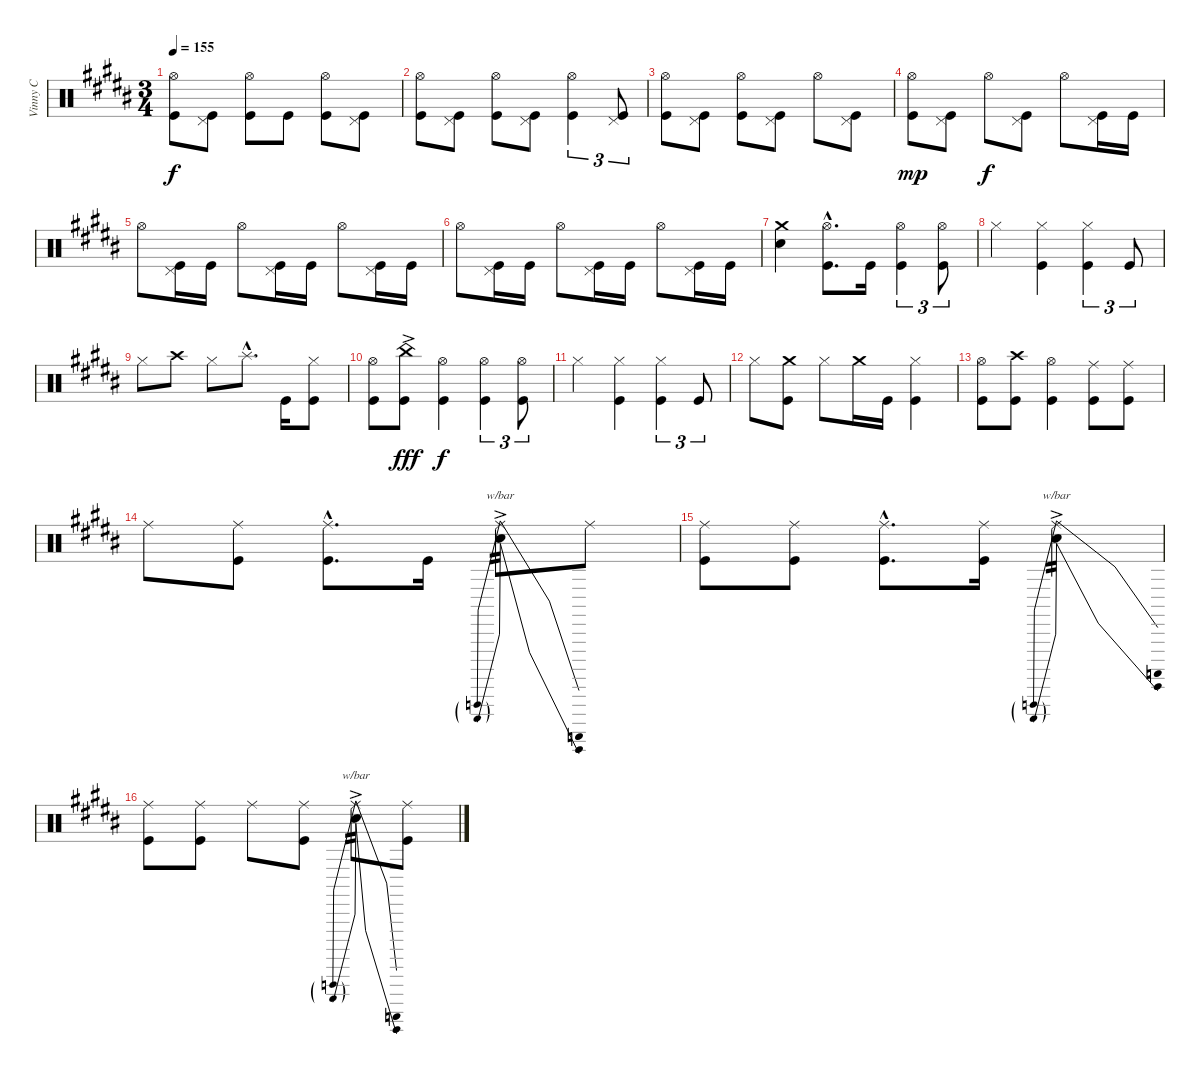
\track ("Vinny C" "Vinny C") {instrument percussion}
\staff {score}
\articulation defaults
\ts (3 4)
\tempo 155
\clef neutral
\ks b
("Hi-Hat (open)" "Kick (hit)").8{dy f} ("Pedal Hi-Hat (hit)" "Kick (hit)").8 ("Hi-Hat (open)" "Kick (hit)").8 "Kick (hit)".8 ("Hi-Hat (open)" "Kick (hit)").8 ("Pedal Hi-Hat (hit)" "Kick (hit)").8 |
("Hi-Hat (open)" "Kick (hit)").8 ("Pedal Hi-Hat (hit)" "Kick (hit)").8 ("Hi-Hat (open)" "Kick (hit)").8 ("Pedal Hi-Hat (hit)" "Kick (hit)").8 ("Hi-Hat (open)" "Kick (hit)").4{tu (3 2)} ("Pedal Hi-Hat (hit)" "Kick (hit)").8{tu (3 2)} |
("Hi-Hat (open)" "Kick (hit)").8 ("Pedal Hi-Hat (hit)" "Kick (hit)").8 ("Hi-Hat (open)" "Kick (hit)").8 ("Pedal Hi-Hat (hit)" "Kick (hit)").8 "Hi-Hat (open)".8 ("Pedal Hi-Hat (hit)" "Kick (hit)").8 |
("Hi-Hat (open)" "Kick (hit)").8{dy mp} ("Pedal Hi-Hat (hit)" "Kick (hit)").8 "Hi-Hat (open)".8{dy f} ("Pedal Hi-Hat (hit)" "Kick (hit)").8 "Hi-Hat (open)".8 ("Pedal Hi-Hat (hit)" "Kick (hit)").16 "Kick (hit)".16 |
"Hi-Hat (open)".8 ("Pedal Hi-Hat (hit)" "Kick (hit)").16 "Kick (hit)".16 "Hi-Hat (open)".8 ("Pedal Hi-Hat (hit)" "Kick (hit)").16 "Kick (hit)".16 "Hi-Hat (open)".8 ("Pedal Hi-Hat (hit)" "Kick (hit)").16 "Kick (hit)".16 |
"Hi-Hat (open)".8 ("Pedal Hi-Hat (hit)" "Kick (hit)").16 "Kick (hit)".16 "Hi-Hat (open)".8 ("Pedal Hi-Hat (hit)" "Kick (hit)").16 "Kick (hit)".16 "Hi-Hat (open)".8 ("Pedal Hi-Hat (hit)" "Kick (hit)").16 "Kick (hit)".16 |
("Crash medium (hit)" "Electric Snare (hit)").4 ("Hi-Hat (open)"{hac} "Kick (hit)"{hac}).8{d} "Kick (hit)".16 ("Hi-Hat (open)" "Kick (hit)").4{tu (3 2)} ("Hi-Hat (open)" "Kick (hit)").8{tu (3 2)} |
"Hi-Hat (closed)".4 ("Hi-Hat (closed)" "Kick (hit)").4 ("Hi-Hat (closed)" "Kick (hit)").4{tu (3 2)} "Kick (hit)".8{tu (3 2)} |
"Hi-Hat (closed)".8 "Crash high (hit)".8 "Hi-Hat (closed)".8 "Splash (hit)"{hac}.8{d} "Kick (hit)".16 ("Hi-Hat (closed)" "Kick (hit)").8 |
("Hi-Hat (open)" "Kick (hit)").8 ("China (hit)"{ac} "Kick (hit)").8{dy fff} ("Hi-Hat (open)" "Kick (hit)").4{dy f} ("Hi-Hat (open)" "Kick (hit)").4{tu (3 2)} ("Hi-Hat (open)" "Kick (hit)").8{tu (3 2)} |
"Hi-Hat (closed)".4 ("Hi-Hat (closed)" "Kick (hit)").4 ("Hi-Hat (closed)" "Kick (hit)").4{tu (3 2)} "Kick (hit)".8{tu (3 2)} |
"Hi-Hat (closed)".8 ("Crash medium (hit)" "Kick (hit)").8 "Hi-Hat (closed)".8 "Crash medium (hit)".16 "Kick (hit)".16 ("Hi-Hat (closed)" "Kick (hit)").4 |
("Hi-Hat (open)" "Kick (hit)").8 ("Crash high (hit)" "Kick (hit)").8 ("Hi-Hat (open)" "Kick (hit)").4 ("Ride (middle)" "Kick (hit)").8 ("Ride (middle)" "Kick (hit)").8 |
"Ride (middle)".8 ("Ride (middle)" "Kick (hit)").8 ("Ride (middle)"{hac} "Kick (hit)"{hac}).8{d} "Kick (hit)".16 ("Ride (middle)" "Electric Snare (hit)"{ac}).8{tbe (predivedive default 0 8 60 -24) tp 2} "Ride (middle)".8 |
("Ride (middle)" "Kick (hit)").8 ("Ride (middle)" "Kick (hit)").8 ("Ride (middle)"{hac} "Kick (hit)"{hac}).8{d} ("Ride (middle)" "Kick (hit)").16 ("Ride (middle)" "Electric Snare (hit)"{ac}).4{tbe (predivedive default 0 -24 60 24) tp 2} |
("Ride (middle)" "Kick (hit)").8 ("Ride (middle)" "Kick (hit)").8 "Ride (middle)".8 ("Ride (middle)" "Kick (hit)").8 ("Ride (middle)" "Electric Snare (hit)"{ac}).8{tbe (predivedive default 0 24 60 -24) tp 2} ("Ride (middle)" "Kick (hit)").8
